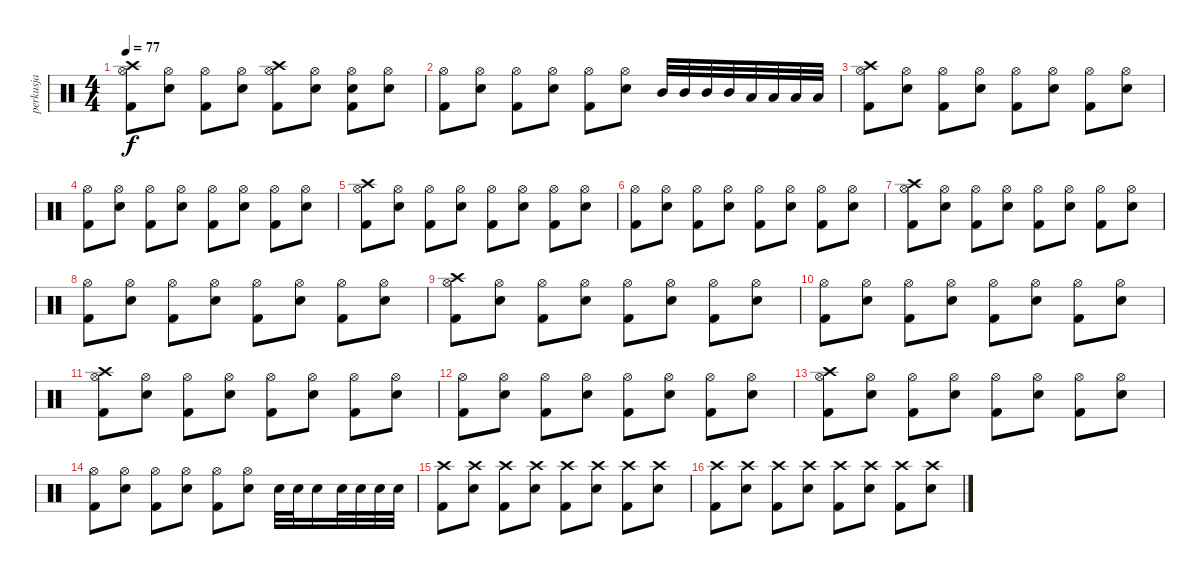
\track ("perkusja" "perkusja") {instrument percussion}
\staff {score}
\articulation defaults
\ts (4 4)
\tempo 77
\clef neutral
\ks c
("Hi-Hat (open)" "Crash high (hit)" "Kick (hit) 2").8{dy f} ("Hi-Hat (open)" "Snare (hit) 2").8 ("Hi-Hat (open)" "Kick (hit) 2").8 ("Hi-Hat (open)" "Snare (hit) 2").8 ("Hi-Hat (open)" "Crash high (hit)" "Kick (hit) 2").8 ("Hi-Hat (open)" "Snare (hit) 2").8 ("Hi-Hat (open)" "Snare (hit) 2" "Kick (hit) 2").8 ("Hi-Hat (open)" "Snare (hit) 2").8 |
("Hi-Hat (open)" "Kick (hit) 2").8 ("Hi-Hat (open)" "Snare (hit) 2").8 ("Hi-Hat (open)" "Kick (hit) 2").8 ("Hi-Hat (open)" "Snare (hit) 2").8 ("Hi-Hat (open)" "Kick (hit) 2").8 ("Hi-Hat (open)" "Snare (hit) 2").8 "Mid Tom (hit)".32 "Mid Tom (hit)".32 "Mid Tom (hit)".32 "Mid Tom (hit)".32 "Low Tom (hit)".32 "Low Tom (hit)".32 "Low Tom (hit)".32 "Low Tom (hit)".32 |
("Hi-Hat (open)" "Crash high (hit)" "Kick (hit) 2").8 ("Hi-Hat (open)" "Snare (hit) 2").8 ("Hi-Hat (open)" "Kick (hit) 2").8 ("Hi-Hat (open)" "Snare (hit) 2").8 ("Hi-Hat (open)" "Kick (hit) 2").8 ("Hi-Hat (open)" "Snare (hit) 2").8 ("Hi-Hat (open)" "Kick (hit) 2").8 ("Hi-Hat (open)" "Snare (hit) 2").8 |
("Hi-Hat (open)" "Kick (hit) 2").8 ("Hi-Hat (open)" "Snare (hit) 2").8 ("Hi-Hat (open)" "Kick (hit) 2").8 ("Hi-Hat (open)" "Snare (hit) 2").8 ("Hi-Hat (open)" "Kick (hit) 2").8 ("Hi-Hat (open)" "Snare (hit) 2").8 ("Hi-Hat (open)" "Kick (hit) 2").8 ("Hi-Hat (open)" "Snare (hit) 2").8 |
("Hi-Hat (open)" "Crash high (hit)" "Kick (hit) 2").8 ("Hi-Hat (open)" "Snare (hit) 2").8 ("Hi-Hat (open)" "Kick (hit) 2").8 ("Hi-Hat (open)" "Snare (hit) 2").8 ("Hi-Hat (open)" "Kick (hit) 2").8 ("Hi-Hat (open)" "Snare (hit) 2").8 ("Hi-Hat (open)" "Kick (hit) 2").8 ("Hi-Hat (open)" "Snare (hit) 2").8 |
("Hi-Hat (open)" "Kick (hit) 2").8 ("Hi-Hat (open)" "Snare (hit) 2").8 ("Hi-Hat (open)" "Kick (hit) 2").8 ("Hi-Hat (open)" "Snare (hit) 2").8 ("Hi-Hat (open)" "Kick (hit) 2").8 ("Hi-Hat (open)" "Snare (hit) 2").8 ("Hi-Hat (open)" "Kick (hit) 2").8 ("Hi-Hat (open)" "Snare (hit) 2").8 |
("Hi-Hat (open)" "Crash high (hit)" "Kick (hit) 2").8 ("Hi-Hat (open)" "Snare (hit) 2").8 ("Hi-Hat (open)" "Kick (hit) 2").8 ("Hi-Hat (open)" "Snare (hit) 2").8 ("Hi-Hat (open)" "Kick (hit) 2").8 ("Hi-Hat (open)" "Snare (hit) 2").8 ("Hi-Hat (open)" "Kick (hit) 2").8 ("Hi-Hat (open)" "Snare (hit) 2").8 |
("Hi-Hat (open)" "Kick (hit) 2").8 ("Hi-Hat (open)" "Snare (hit) 2").8 ("Hi-Hat (open)" "Kick (hit) 2").8 ("Hi-Hat (open)" "Snare (hit) 2").8 ("Hi-Hat (open)" "Kick (hit) 2").8 ("Hi-Hat (open)" "Snare (hit) 2").8 ("Hi-Hat (open)" "Kick (hit) 2").8 ("Hi-Hat (open)" "Snare (hit) 2").8 |
("Hi-Hat (open)" "Crash high (hit)" "Kick (hit) 2").8 ("Hi-Hat (open)" "Snare (hit) 2").8 ("Hi-Hat (open)" "Kick (hit) 2").8 ("Hi-Hat (open)" "Snare (hit) 2").8 ("Hi-Hat (open)" "Kick (hit) 2").8 ("Hi-Hat (open)" "Snare (hit) 2").8 ("Hi-Hat (open)" "Kick (hit) 2").8 ("Hi-Hat (open)" "Snare (hit) 2").8 |
("Hi-Hat (open)" "Kick (hit) 2").8 ("Hi-Hat (open)" "Snare (hit) 2").8 ("Hi-Hat (open)" "Kick (hit) 2").8 ("Hi-Hat (open)" "Snare (hit) 2").8 ("Hi-Hat (open)" "Kick (hit) 2").8 ("Hi-Hat (open)" "Snare (hit) 2").8 ("Hi-Hat (open)" "Kick (hit) 2").8 ("Hi-Hat (open)" "Snare (hit) 2").8 |
("Hi-Hat (open)" "Crash high (hit)" "Kick (hit) 2").8 ("Hi-Hat (open)" "Snare (hit) 2").8 ("Hi-Hat (open)" "Kick (hit) 2").8 ("Hi-Hat (open)" "Snare (hit) 2").8 ("Hi-Hat (open)" "Kick (hit) 2").8 ("Hi-Hat (open)" "Snare (hit) 2").8 ("Hi-Hat (open)" "Kick (hit) 2").8 ("Hi-Hat (open)" "Snare (hit) 2").8 |
("Hi-Hat (open)" "Kick (hit) 2").8 ("Hi-Hat (open)" "Snare (hit) 2").8 ("Hi-Hat (open)" "Kick (hit) 2").8 ("Hi-Hat (open)" "Snare (hit) 2").8 ("Hi-Hat (open)" "Kick (hit) 2").8 ("Hi-Hat (open)" "Snare (hit) 2").8 ("Hi-Hat (open)" "Kick (hit) 2").8 ("Hi-Hat (open)" "Snare (hit) 2").8 |
("Hi-Hat (open)" "Crash high (hit)" "Kick (hit) 2").8 ("Hi-Hat (open)" "Snare (hit) 2").8 ("Hi-Hat (open)" "Kick (hit) 2").8 ("Hi-Hat (open)" "Snare (hit) 2").8 ("Hi-Hat (open)" "Kick (hit) 2").8 ("Hi-Hat (open)" "Snare (hit) 2").8 ("Hi-Hat (open)" "Kick (hit) 2").8 ("Hi-Hat (open)" "Snare (hit) 2").8 |
("Hi-Hat (open)" "Kick (hit) 2").8 ("Hi-Hat (open)" "Snare (hit) 2").8 ("Hi-Hat (open)" "Kick (hit) 2").8 ("Hi-Hat (open)" "Snare (hit) 2").8 ("Hi-Hat (open)" "Kick (hit) 2").8 ("Hi-Hat (open)" "Snare (hit) 2").8 "Snare (hit) 2".32 "Snare (hit) 2".32 "Snare (hit) 2".16 "Snare (hit) 2".32 "Snare (hit) 2".32 "Snare (hit) 2".32 "Snare (hit) 2".32 |
("Crash high (hit)" "Kick (hit) 2").8 ("Crash high (hit)" "Snare (hit) 2").8 ("Crash high (hit)" "Kick (hit) 2").8 ("Crash high (hit)" "Snare (hit) 2").8 ("Crash high (hit)" "Kick (hit) 2").8 ("Crash high (hit)" "Snare (hit) 2").8 ("Crash high (hit)" "Kick (hit) 2").8 ("Crash high (hit)" "Snare (hit) 2").8 |
("Crash high (hit)" "Kick (hit) 2").8 ("Crash high (hit)" "Snare (hit) 2").8 ("Crash high (hit)" "Kick (hit) 2").8 ("Crash high (hit)" "Snare (hit) 2").8 ("Crash high (hit)" "Kick (hit) 2").8 ("Crash high (hit)" "Snare (hit) 2").8 ("Crash high (hit)" "Kick (hit) 2").8 ("Crash high (hit)" "Snare (hit) 2").8
